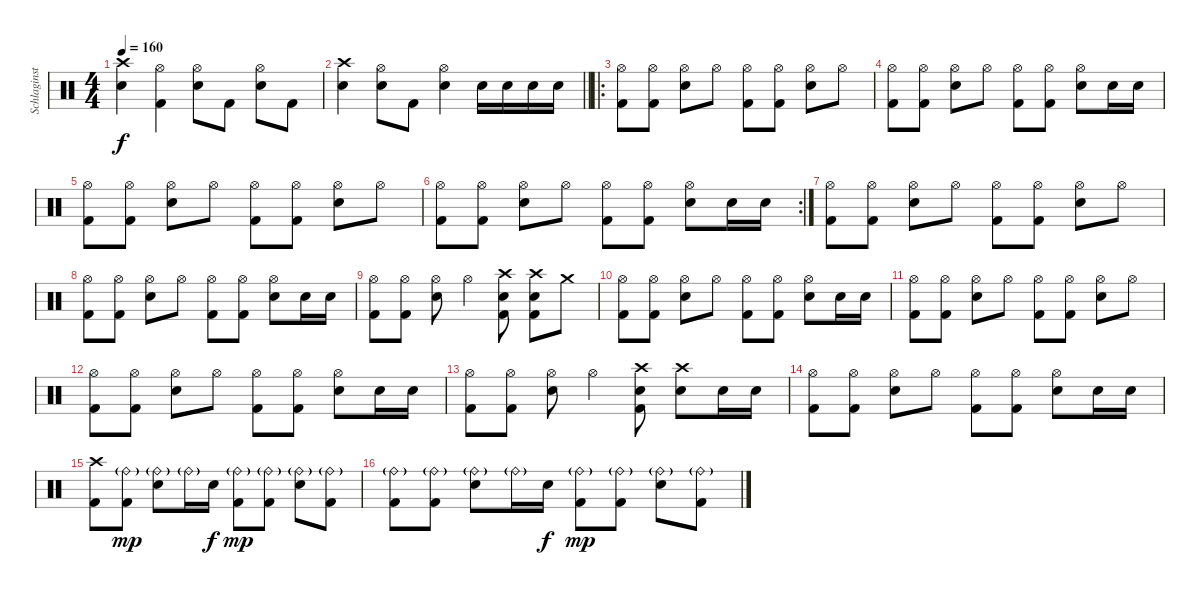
\track ("Schlaginstrumente - Auswahl" "Schlaginst") {instrument percussion}
\staff {score}
\articulation defaults
\ts (4 4)
\tempo 160
\clef neutral
\ks c
("Crash high (hit)" "Electric Snare (hit)").4{dy f} ("Hi-Hat (open)" "Kick (hit) 2").4 ("Hi-Hat (open)" "Electric Snare (hit)").8 "Kick (hit) 2".8 ("Hi-Hat (open)" "Electric Snare (hit)").8 "Kick (hit) 2".8 |
\barLineRight lightlight
("Crash high (hit)" "Electric Snare (hit)").4 ("Hi-Hat (open)" "Electric Snare (hit)").8 "Kick (hit) 2".8 ("Hi-Hat (open)" "Electric Snare (hit)").4 "Electric Snare (hit)".16 "Electric Snare (hit)".16 "Electric Snare (hit)".16 "Electric Snare (hit)".16 |
\ro
("Hi-Hat (open)" "Kick (hit) 2").8 ("Hi-Hat (open)" "Kick (hit) 2").8 ("Hi-Hat (open)" "Electric Snare (hit)").8 "Hi-Hat (open)".8 ("Hi-Hat (open)" "Kick (hit) 2").8 ("Hi-Hat (open)" "Kick (hit) 2").8 ("Hi-Hat (open)" "Electric Snare (hit)").8 "Hi-Hat (open)".8 |
("Hi-Hat (open)" "Kick (hit) 2").8 ("Hi-Hat (open)" "Kick (hit) 2").8 ("Hi-Hat (open)" "Electric Snare (hit)").8 "Hi-Hat (open)".8 ("Hi-Hat (open)" "Kick (hit) 2").8 ("Hi-Hat (open)" "Kick (hit) 2").8 ("Hi-Hat (open)" "Electric Snare (hit)").8 "Electric Snare (hit)".16 "Electric Snare (hit)".16 |
("Hi-Hat (open)" "Kick (hit) 2").8 ("Hi-Hat (open)" "Kick (hit) 2").8 ("Hi-Hat (open)" "Electric Snare (hit)").8 "Hi-Hat (open)".8 ("Hi-Hat (open)" "Kick (hit) 2").8 ("Hi-Hat (open)" "Kick (hit) 2").8 ("Hi-Hat (open)" "Electric Snare (hit)").8 "Hi-Hat (open)".8 |
\rc 2
("Hi-Hat (open)" "Kick (hit) 2").8 ("Hi-Hat (open)" "Kick (hit) 2").8 ("Hi-Hat (open)" "Electric Snare (hit)").8 "Hi-Hat (open)".8 ("Hi-Hat (open)" "Kick (hit) 2").8 ("Hi-Hat (open)" "Kick (hit) 2").8 ("Hi-Hat (open)" "Electric Snare (hit)").8 "Electric Snare (hit)".16 "Electric Snare (hit)".16 |
("Hi-Hat (open)" "Kick (hit) 2").8 ("Hi-Hat (open)" "Kick (hit) 2").8 ("Hi-Hat (open)" "Electric Snare (hit)").8 "Hi-Hat (open)".8 ("Hi-Hat (open)" "Kick (hit) 2").8 ("Hi-Hat (open)" "Kick (hit) 2").8 ("Hi-Hat (open)" "Electric Snare (hit)").8 "Hi-Hat (open)".8 |
("Hi-Hat (open)" "Kick (hit) 2").8 ("Hi-Hat (open)" "Kick (hit) 2").8 ("Hi-Hat (open)" "Electric Snare (hit)").8 "Hi-Hat (open)".8 ("Hi-Hat (open)" "Kick (hit) 2").8 ("Hi-Hat (open)" "Kick (hit) 2").8 ("Hi-Hat (open)" "Electric Snare (hit)").8 "Electric Snare (hit)".16 "Electric Snare (hit)".16 |
("Hi-Hat (open)" "Kick (hit) 2").8 ("Hi-Hat (open)" "Kick (hit) 2").8 ("Hi-Hat (open)" "Electric Snare (hit)").8 "Hi-Hat (open)".4 ("Crash high (hit)" "Electric Snare (hit)" "Kick (hit) 2").8 ("Crash high (hit)" "Electric Snare (hit)" "Kick (hit) 2").8 "Crash medium (hit)".8 |
("Hi-Hat (open)" "Kick (hit) 2").8 ("Hi-Hat (open)" "Kick (hit) 2").8 ("Hi-Hat (open)" "Electric Snare (hit)").8 "Hi-Hat (open)".8 ("Hi-Hat (open)" "Kick (hit) 2").8 ("Hi-Hat (open)" "Kick (hit) 2").8 ("Hi-Hat (open)" "Electric Snare (hit)").8 "Electric Snare (hit)".16 "Electric Snare (hit)".16 |
("Hi-Hat (open)" "Kick (hit) 2").8 ("Hi-Hat (open)" "Kick (hit) 2").8 ("Hi-Hat (open)" "Electric Snare (hit)").8 "Hi-Hat (open)".8 ("Hi-Hat (open)" "Kick (hit) 2").8 ("Hi-Hat (open)" "Kick (hit) 2").8 ("Hi-Hat (open)" "Electric Snare (hit)").8 "Hi-Hat (open)".8 |
("Hi-Hat (open)" "Kick (hit) 2").8 ("Hi-Hat (open)" "Kick (hit) 2").8 ("Hi-Hat (open)" "Electric Snare (hit)").8 "Hi-Hat (open)".8 ("Hi-Hat (open)" "Kick (hit) 2").8 ("Hi-Hat (open)" "Kick (hit) 2").8 ("Hi-Hat (open)" "Electric Snare (hit)").8 "Electric Snare (hit)".16 "Electric Snare (hit)".16 |
("Hi-Hat (open)" "Kick (hit) 2").8 ("Hi-Hat (open)" "Kick (hit) 2").8 ("Hi-Hat (open)" "Electric Snare (hit)").8 "Hi-Hat (open)".4 ("Crash high (hit)" "Electric Snare (hit)" "Kick (hit) 2").8 ("Crash high (hit)" "Electric Snare (hit)").8 "Electric Snare (hit)".16 "Electric Snare (hit)".16 |
("Hi-Hat (open)" "Kick (hit) 2").8 ("Hi-Hat (open)" "Kick (hit) 2").8 ("Hi-Hat (open)" "Electric Snare (hit)").8 "Hi-Hat (open)".8 ("Hi-Hat (open)" "Kick (hit) 2").8 ("Hi-Hat (open)" "Kick (hit) 2").8 ("Hi-Hat (open)" "Electric Snare (hit)").8 "Electric Snare (hit)".16 "Electric Snare (hit)".16 |
("Crash high (hit)" "Kick (hit) 2").8 ("Ride (bell)"{g} "Kick (hit) 2").8{dy mp} ("Ride (bell)"{g} "Electric Snare (hit)").8 "Ride (bell)"{g}.16 "Electric Snare (hit)".16{dy f} ("Ride (bell)"{g} "Kick (hit) 2").8{dy mp} ("Ride (bell)"{g} "Kick (hit) 2").8 ("Ride (bell)"{g} "Electric Snare (hit)").8 ("Ride (bell)"{g} "Kick (hit) 2").8 |
("Ride (bell)"{g} "Kick (hit) 2").8 ("Ride (bell)"{g} "Kick (hit) 2").8 ("Ride (bell)"{g} "Electric Snare (hit)").8 "Ride (bell)"{g}.16 "Electric Snare (hit)".16{dy f} ("Ride (bell)"{g} "Kick (hit) 2").8{dy mp} ("Ride (bell)"{g} "Kick (hit) 2").8 ("Ride (bell)"{g} "Electric Snare (hit)").8 ("Ride (bell)"{g} "Kick (hit) 2").8
